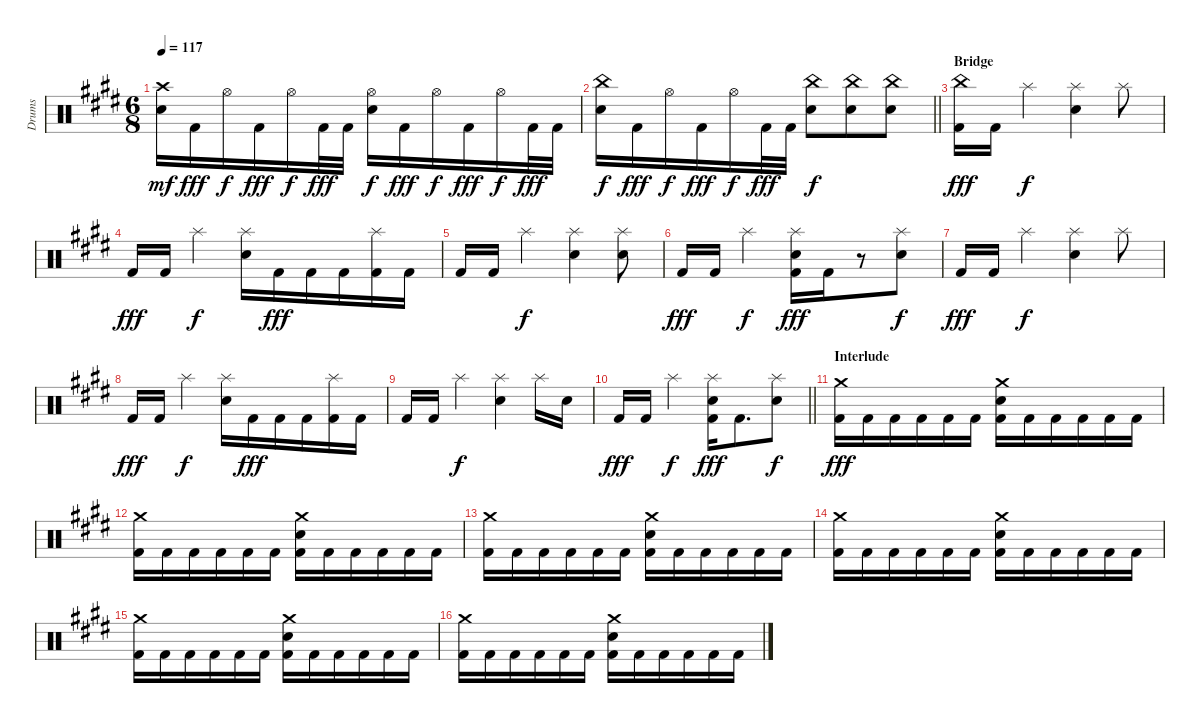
\track ("Drums" "Drums") {instrument percussion}
\staff {score}
\articulation defaults
\ts (6 8)
\tempo 117
\clef neutral
\ks c#minor
("Crash high (hit)" "Electric Snare (hit)").16{dy mf} "Kick (hit) 2".16{dy fff} "Hi-Hat (open)".16{dy f} "Kick (hit) 2".16{dy fff} "Hi-Hat (open)".16{dy f} "Kick (hit) 2".32{dy fff} "Kick (hit) 2".32 ("Hi-Hat (open)" "Electric Snare (hit)").16{dy f} "Kick (hit) 2".16{dy fff} "Hi-Hat (open)".16{dy f} "Kick (hit) 2".16{dy fff} "Hi-Hat (open)".16{dy f} "Kick (hit) 2".32{dy fff} "Kick (hit) 2".32 |
\barLineRight lightlight
("China (hit)" "Electric Snare (hit)").16{dy f} "Kick (hit) 2".16{dy fff} "Hi-Hat (open)".16{dy f} "Kick (hit) 2".16{dy fff} "Hi-Hat (open)".16{dy f} "Kick (hit) 2".32{dy fff} "Kick (hit) 2".32 ("China (hit)" "Electric Snare (hit)").8{dy f} ("China (hit)" "Electric Snare (hit)").8 ("China (hit)" "Electric Snare (hit)").8 |
\section ("" "Bridge")
("China (hit)" "Kick (hit) 2").16{dy fff} "Kick (hit) 2".16 "Splash (hit)".4{dy f} ("Splash (hit)" "Electric Snare (hit)").4 "Splash (hit)".8 |
"Kick (hit) 2".16{dy fff} "Kick (hit) 2".16 "Splash (hit)".4{dy f} ("Splash (hit)" "Electric Snare (hit)").16 "Kick (hit) 2".16{dy fff} "Kick (hit) 2".16 "Kick (hit) 2".16 ("Splash (hit)" "Kick (hit) 2").16 "Kick (hit) 2".16 |
"Kick (hit) 2".16 "Kick (hit) 2".16 "Splash (hit)".4{dy f} ("Splash (hit)" "Electric Snare (hit)").4 ("Splash (hit)" "Electric Snare (hit)").8 |
"Kick (hit) 2".16{dy fff} "Kick (hit) 2".16 "Splash (hit)".4{dy f} ("Splash (hit)" "Electric Snare (hit)" "Kick (hit) 2").16{dy fff} "Kick (hit) 2".16 r.8 ("Splash (hit)" "Electric Snare (hit)").8{dy f} |
"Kick (hit) 2".16{dy fff} "Kick (hit) 2".16 "Splash (hit)".4{dy f} ("Splash (hit)" "Electric Snare (hit)").4 "Splash (hit)".8 |
"Kick (hit) 2".16{dy fff} "Kick (hit) 2".16 "Splash (hit)".4{dy f} ("Splash (hit)" "Electric Snare (hit)").16 "Kick (hit) 2".16{dy fff} "Kick (hit) 2".16 "Kick (hit) 2".16 ("Splash (hit)" "Kick (hit) 2").16 "Kick (hit) 2".16 |
"Kick (hit) 2".16 "Kick (hit) 2".16 "Splash (hit)".4{dy f} ("Splash (hit)" "Electric Snare (hit)").4 "Splash (hit)".16 "Electric Snare (hit)".16 |
\barLineRight lightlight "Kick (hit) 2".16{dy fff} "Kick (hit) 2".16 "Splash (hit)".4{dy f}
("Splash (hit)" "Electric Snare (hit)" "Kick (hit) 2").16{dy fff} "Kick (hit) 2".8{d} ("Splash (hit)" "Electric Snare (hit)").8{dy f} |
\section ("" "Interlude")
("Crash medium (hit)" "Kick (hit) 2").16{dy fff} "Kick (hit) 2".16 "Kick (hit) 2".16 "Kick (hit) 2".16 "Kick (hit) 2".16 "Kick (hit) 2".16 ("Crash medium (hit)" "Electric Snare (hit)" "Kick (hit) 2").16 "Kick (hit) 2".16 "Kick (hit) 2".16 "Kick (hit) 2".16 "Kick (hit) 2".16 "Kick (hit) 2".16 |
("Crash medium (hit)" "Kick (hit) 2").16 "Kick (hit) 2".16 "Kick (hit) 2".16 "Kick (hit) 2".16 "Kick (hit) 2".16 "Kick (hit) 2".16 ("Crash medium (hit)" "Electric Snare (hit)" "Kick (hit) 2").16 "Kick (hit) 2".16 "Kick (hit) 2".16 "Kick (hit) 2".16 "Kick (hit) 2".16 "Kick (hit) 2".16 |
("Crash medium (hit)" "Kick (hit) 2").16 "Kick (hit) 2".16 "Kick (hit) 2".16 "Kick (hit) 2".16 "Kick (hit) 2".16 "Kick (hit) 2".16 ("Crash medium (hit)" "Electric Snare (hit)" "Kick (hit) 2").16 "Kick (hit) 2".16 "Kick (hit) 2".16 "Kick (hit) 2".16 "Kick (hit) 2".16 "Kick (hit) 2".16 |
("Crash medium (hit)" "Kick (hit) 2").16 "Kick (hit) 2".16 "Kick (hit) 2".16 "Kick (hit) 2".16 "Kick (hit) 2".16 "Kick (hit) 2".16 ("Crash medium (hit)" "Electric Snare (hit)" "Kick (hit) 2").16 "Kick (hit) 2".16 "Kick (hit) 2".16 "Kick (hit) 2".16 "Kick (hit) 2".16 "Kick (hit) 2".16 |
("Crash medium (hit)" "Kick (hit) 2").16 "Kick (hit) 2".16 "Kick (hit) 2".16 "Kick (hit) 2".16 "Kick (hit) 2".16 "Kick (hit) 2".16 ("Crash medium (hit)" "Electric Snare (hit)" "Kick (hit) 2").16 "Kick (hit) 2".16 "Kick (hit) 2".16 "Kick (hit) 2".16 "Kick (hit) 2".16 "Kick (hit) 2".16 |
("Crash medium (hit)" "Kick (hit) 2").16 "Kick (hit) 2".16 "Kick (hit) 2".16 "Kick (hit) 2".16 "Kick (hit) 2".16 "Kick (hit) 2".16 ("Crash medium (hit)" "Electric Snare (hit)" "Kick (hit) 2").16 "Kick (hit) 2".16 "Kick (hit) 2".16 "Kick (hit) 2".16 "Kick (hit) 2".16 "Kick (hit) 2".16
